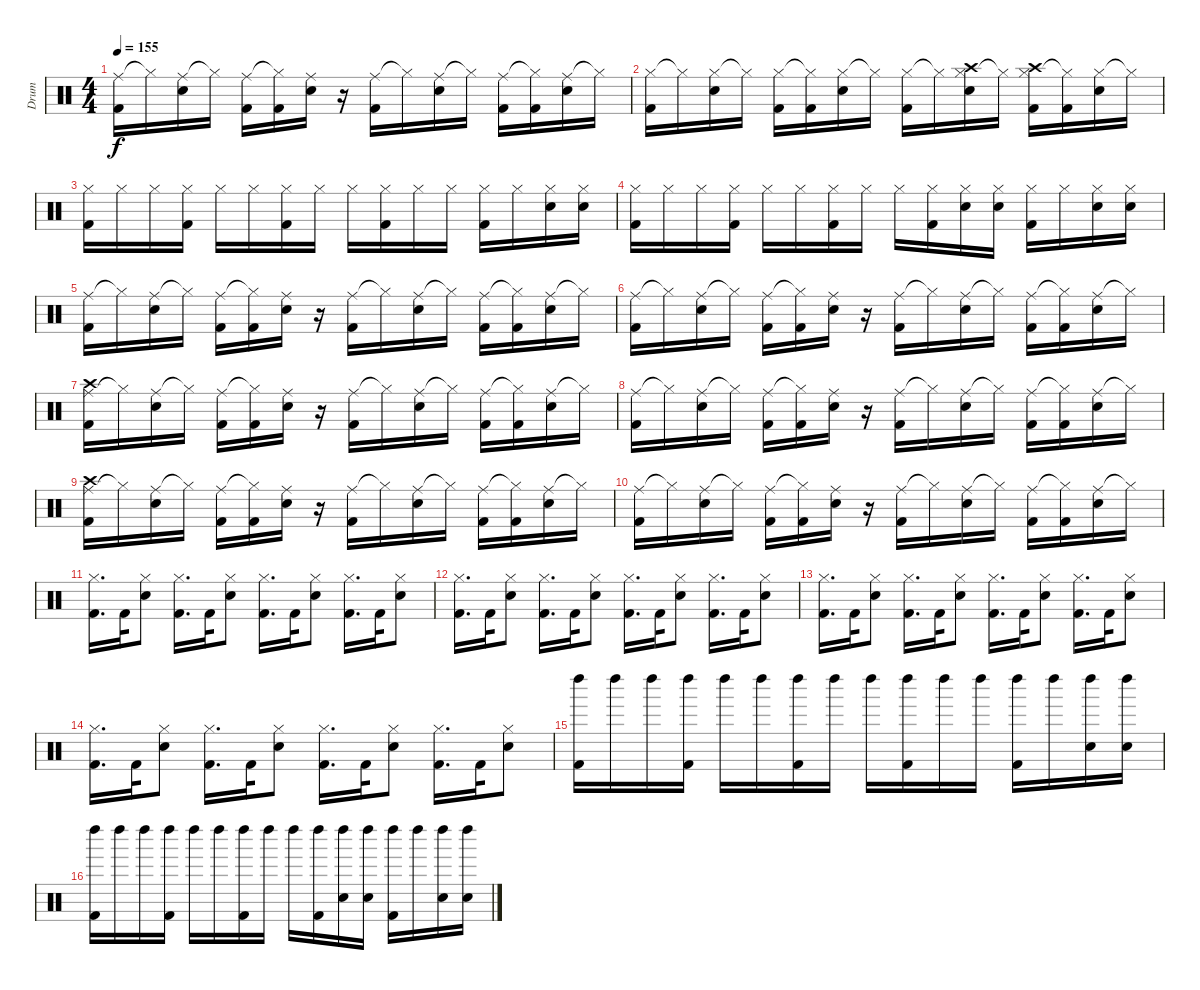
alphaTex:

\track ("Drum" "Drum") {instrument percussion}
\staff {score}
\articulation defaults
\ts (4 4)
\tempo 155
\clef neutral
\ks c
("Ride (middle)" "Kick (hit) 2").16{dy f} "Hi-Hat (closed)"{t}.16 ("Ride (middle)" "Snare (hit) 2").16 "Hi-Hat (closed)"{t}.16 ("Ride (middle)" "Kick (hit) 2").16 ("Hi-Hat (closed)"{t} "Kick (hit) 2").16 ("Ride (middle)" "Snare (hit) 2").16 r.16 ("Ride (middle)" "Kick (hit) 2").16 "Hi-Hat (closed)"{t}.16 ("Ride (middle)" "Snare (hit) 2").16 "Hi-Hat (closed)"{t}.16 ("Ride (middle)" "Kick (hit) 2").16 ("Hi-Hat (closed)"{t} "Kick (hit) 2").16 ("Ride (middle)" "Snare (hit) 2").16 "Hi-Hat (closed)"{t}.16 |
("Hi-Hat (closed)" "Kick (hit) 2").16 "Hi-Hat (closed)"{t}.16 ("Hi-Hat (closed)" "Snare (hit) 2").16 "Hi-Hat (closed)"{t}.16 ("Hi-Hat (closed)" "Kick (hit) 2").16 ("Hi-Hat (closed)"{t} "Kick (hit) 2").16 ("Hi-Hat (closed)" "Snare (hit) 2").16 "Hi-Hat (closed)"{t}.16 ("Hi-Hat (closed)" "Kick (hit) 2").16 "Hi-Hat (closed)"{t}.16 ("Hi-Hat (closed)" "Crash high (hit)" "Snare (hit) 2").16 "Hi-Hat (closed)"{t}.16 ("Hi-Hat (closed)" "Crash high (hit)" "Kick (hit) 2").16 ("Hi-Hat (closed)"{t} "Kick (hit) 2").16 ("Hi-Hat (closed)" "Snare (hit) 2").16 "Hi-Hat (closed)"{t}.16 |
("Hi-Hat (closed)" "Kick (hit) 2").16 "Hi-Hat (closed)".16 "Hi-Hat (closed)".16 ("Hi-Hat (closed)" "Kick (hit) 2").16 "Hi-Hat (closed)".16 "Hi-Hat (closed)".16 ("Hi-Hat (closed)" "Kick (hit) 2").16 "Hi-Hat (closed)".16 "Hi-Hat (closed)".16 ("Hi-Hat (closed)" "Kick (hit) 2").16 "Hi-Hat (closed)".16 "Hi-Hat (closed)".16 ("Hi-Hat (closed)" "Kick (hit) 2").16 "Hi-Hat (closed)".16 ("Hi-Hat (closed)" "Snare (hit) 2").16 ("Hi-Hat (closed)" "Snare (hit) 2").16 |
("Hi-Hat (closed)" "Kick (hit) 2").16 "Hi-Hat (closed)".16 "Hi-Hat (closed)".16 ("Hi-Hat (closed)" "Kick (hit) 2").16 "Hi-Hat (closed)".16 "Hi-Hat (closed)".16 ("Hi-Hat (closed)" "Kick (hit) 2").16 "Hi-Hat (closed)".16 "Hi-Hat (closed)".16 ("Hi-Hat (closed)" "Kick (hit) 2").16 ("Hi-Hat (closed)" "Snare (hit) 2").16 ("Hi-Hat (closed)" "Snare (hit) 2").16 ("Hi-Hat (closed)" "Kick (hit) 2").16 "Hi-Hat (closed)".16 ("Hi-Hat (closed)" "Snare (hit) 2").16 ("Hi-Hat (closed)" "Snare (hit) 2").16 |
("Ride (middle)" "Kick (hit) 2").16 "Hi-Hat (closed)"{t}.16 ("Ride (middle)" "Snare (hit) 2").16 "Hi-Hat (closed)"{t}.16 ("Ride (middle)" "Kick (hit) 2").16 ("Hi-Hat (closed)"{t} "Kick (hit) 2").16 ("Ride (middle)" "Snare (hit) 2").16 r.16 ("Ride (middle)" "Kick (hit) 2").16 "Hi-Hat (closed)"{t}.16 ("Ride (middle)" "Snare (hit) 2").16 "Hi-Hat (closed)"{t}.16 ("Ride (middle)" "Kick (hit) 2").16 ("Hi-Hat (closed)"{t} "Kick (hit) 2").16 ("Ride (middle)" "Snare (hit) 2").16 "Hi-Hat (closed)"{t}.16 |
("Ride (middle)" "Kick (hit) 2").16 "Hi-Hat (closed)"{t}.16 ("Ride (middle)" "Snare (hit) 2").16 "Hi-Hat (closed)"{t}.16 ("Ride (middle)" "Kick (hit) 2").16 ("Hi-Hat (closed)"{t} "Kick (hit) 2").16 ("Ride (middle)" "Snare (hit) 2").16 r.16 ("Ride (middle)" "Kick (hit) 2").16 "Hi-Hat (closed)"{t}.16 ("Ride (middle)" "Snare (hit) 2").16 "Hi-Hat (closed)"{t}.16 ("Ride (middle)" "Kick (hit) 2").16 ("Hi-Hat (closed)"{t} "Kick (hit) 2").16 ("Ride (middle)" "Snare (hit) 2").16 "Hi-Hat (closed)"{t}.16 |
("Ride (middle)" "Crash high (hit)" "Kick (hit) 2").16 "Hi-Hat (closed)"{t}.16 ("Ride (middle)" "Snare (hit) 2").16 "Hi-Hat (closed)"{t}.16 ("Ride (middle)" "Kick (hit) 2").16 ("Hi-Hat (closed)"{t} "Kick (hit) 2").16 ("Ride (middle)" "Snare (hit) 2").16 r.16 ("Ride (middle)" "Kick (hit) 2").16 "Hi-Hat (closed)"{t}.16 ("Ride (middle)" "Snare (hit) 2").16 "Hi-Hat (closed)"{t}.16 ("Ride (middle)" "Kick (hit) 2").16 ("Hi-Hat (closed)"{t} "Kick (hit) 2").16 ("Ride (middle)" "Snare (hit) 2").16 "Hi-Hat (closed)"{t}.16 |
("Ride (middle)" "Kick (hit) 2").16 "Hi-Hat (closed)"{t}.16 ("Ride (middle)" "Snare (hit) 2").16 "Hi-Hat (closed)"{t}.16 ("Ride (middle)" "Kick (hit) 2").16 ("Hi-Hat (closed)"{t} "Kick (hit) 2").16 ("Ride (middle)" "Snare (hit) 2").16 r.16 ("Ride (middle)" "Kick (hit) 2").16 "Hi-Hat (closed)"{t}.16 ("Ride (middle)" "Snare (hit) 2").16 "Hi-Hat (closed)"{t}.16 ("Ride (middle)" "Kick (hit) 2").16 ("Hi-Hat (closed)"{t} "Kick (hit) 2").16 ("Ride (middle)" "Snare (hit) 2").16 "Hi-Hat (closed)"{t}.16 |
("Ride (middle)" "Crash high (hit)" "Kick (hit) 2").16 "Hi-Hat (closed)"{t}.16 ("Ride (middle)" "Snare (hit) 2").16 "Hi-Hat (closed)"{t}.16 ("Ride (middle)" "Kick (hit) 2").16 ("Hi-Hat (closed)"{t} "Kick (hit) 2").16 ("Ride (middle)" "Snare (hit) 2").16 r.16 ("Ride (middle)" "Kick (hit) 2").16 "Hi-Hat (closed)"{t}.16 ("Ride (middle)" "Snare (hit) 2").16 "Hi-Hat (closed)"{t}.16 ("Ride (middle)" "Kick (hit) 2").16 ("Hi-Hat (closed)"{t} "Kick (hit) 2").16 ("Ride (middle)" "Snare (hit) 2").16 "Hi-Hat (closed)"{t}.16 |
("Ride (middle)" "Kick (hit) 2").16 "Hi-Hat (closed)"{t}.16 ("Ride (middle)" "Snare (hit) 2").16 "Hi-Hat (closed)"{t}.16 ("Ride (middle)" "Kick (hit) 2").16 ("Hi-Hat (closed)"{t} "Kick (hit) 2").16 ("Ride (middle)" "Snare (hit) 2").16 r.16 ("Ride (middle)" "Kick (hit) 2").16 "Hi-Hat (closed)"{t}.16 ("Ride (middle)" "Snare (hit) 2").16 "Hi-Hat (closed)"{t}.16 ("Ride (middle)" "Kick (hit) 2").16 ("Hi-Hat (closed)"{t} "Kick (hit) 2").16 ("Ride (middle)" "Snare (hit) 2").16 "Hi-Hat (closed)"{t}.16 |
("Hi-Hat (closed)" "Kick (hit) 2").16{d} "Kick (hit) 2".32 ("Hi-Hat (closed)" "Snare (hit) 2").8 ("Hi-Hat (closed)" "Kick (hit) 2").16{d} "Kick (hit) 2".32 ("Hi-Hat (closed)" "Snare (hit) 2").8 ("Hi-Hat (closed)" "Kick (hit) 2").16{d} "Kick (hit) 2".32 ("Hi-Hat (closed)" "Snare (hit) 2").8 ("Hi-Hat (closed)" "Kick (hit) 2").16{d} "Kick (hit) 2".32 ("Hi-Hat (closed)" "Snare (hit) 2").8 |
("Hi-Hat (closed)" "Kick (hit) 2").16{d} "Kick (hit) 2".32 ("Hi-Hat (closed)" "Snare (hit) 2").8 ("Hi-Hat (closed)" "Kick (hit) 2").16{d} "Kick (hit) 2".32 ("Hi-Hat (closed)" "Snare (hit) 2").8 ("Hi-Hat (closed)" "Kick (hit) 2").16{d} "Kick (hit) 2".32 ("Hi-Hat (closed)" "Snare (hit) 2").8 ("Hi-Hat (closed)" "Kick (hit) 2").16{d} "Kick (hit) 2".32 ("Hi-Hat (closed)" "Snare (hit) 2").8 |
("Hi-Hat (closed)" "Kick (hit) 2").16{d} "Kick (hit) 2".32 ("Hi-Hat (closed)" "Snare (hit) 2").8 ("Hi-Hat (closed)" "Kick (hit) 2").16{d} "Kick (hit) 2".32 ("Hi-Hat (closed)" "Snare (hit) 2").8 ("Hi-Hat (closed)" "Kick (hit) 2").16{d} "Kick (hit) 2".32 ("Hi-Hat (closed)" "Snare (hit) 2").8 ("Hi-Hat (closed)" "Kick (hit) 2").16{d} "Kick (hit) 2".32 ("Hi-Hat (closed)" "Snare (hit) 2").8 |
("Hi-Hat (closed)" "Kick (hit) 2").16{d} "Kick (hit) 2".32 ("Hi-Hat (closed)" "Snare (hit) 2").8 ("Hi-Hat (closed)" "Kick (hit) 2").16{d} "Kick (hit) 2".32 ("Hi-Hat (closed)" "Snare (hit) 2").8 ("Hi-Hat (closed)" "Kick (hit) 2").16{d} "Kick (hit) 2".32 ("Hi-Hat (closed)" "Snare (hit) 2").8 ("Hi-Hat (closed)" "Kick (hit) 2").16{d} "Kick (hit) 2".32 ("Hi-Hat (closed)" "Snare (hit) 2").8 |
("Left Maraca (hit)" "Kick (hit) 2").16 "Left Maraca (hit)".16 "Left Maraca (hit)".16 ("Left Maraca (hit)" "Kick (hit) 2").16 "Left Maraca (hit)".16 "Left Maraca (hit)".16 ("Left Maraca (hit)" "Kick (hit) 2").16 "Left Maraca (hit)".16 "Left Maraca (hit)".16 ("Left Maraca (hit)" "Kick (hit) 2").16 "Left Maraca (hit)".16 "Left Maraca (hit)".16 ("Left Maraca (hit)" "Kick (hit) 2").16 "Left Maraca (hit)".16 ("Left Maraca (hit)" "Snare (hit) 2").16 ("Left Maraca (hit)" "Snare (hit) 2").16 |
("Left Maraca (hit)" "Kick (hit) 2").16 "Left Maraca (hit)".16 "Left Maraca (hit)".16 ("Left Maraca (hit)" "Kick (hit) 2").16 "Left Maraca (hit)".16 "Left Maraca (hit)".16 ("Left Maraca (hit)" "Kick (hit) 2").16 "Left Maraca (hit)".16 "Left Maraca (hit)".16 ("Left Maraca (hit)" "Kick (hit) 2").16 ("Left Maraca (hit)" "Snare (hit) 2").16 ("Left Maraca (hit)" "Snare (hit) 2").16 ("Left Maraca (hit)" "Kick (hit) 2").16 "Left Maraca (hit)".16 ("Left Maraca (hit)" "Snare (hit) 2").16 ("Left Maraca (hit)" "Snare (hit) 2").16
